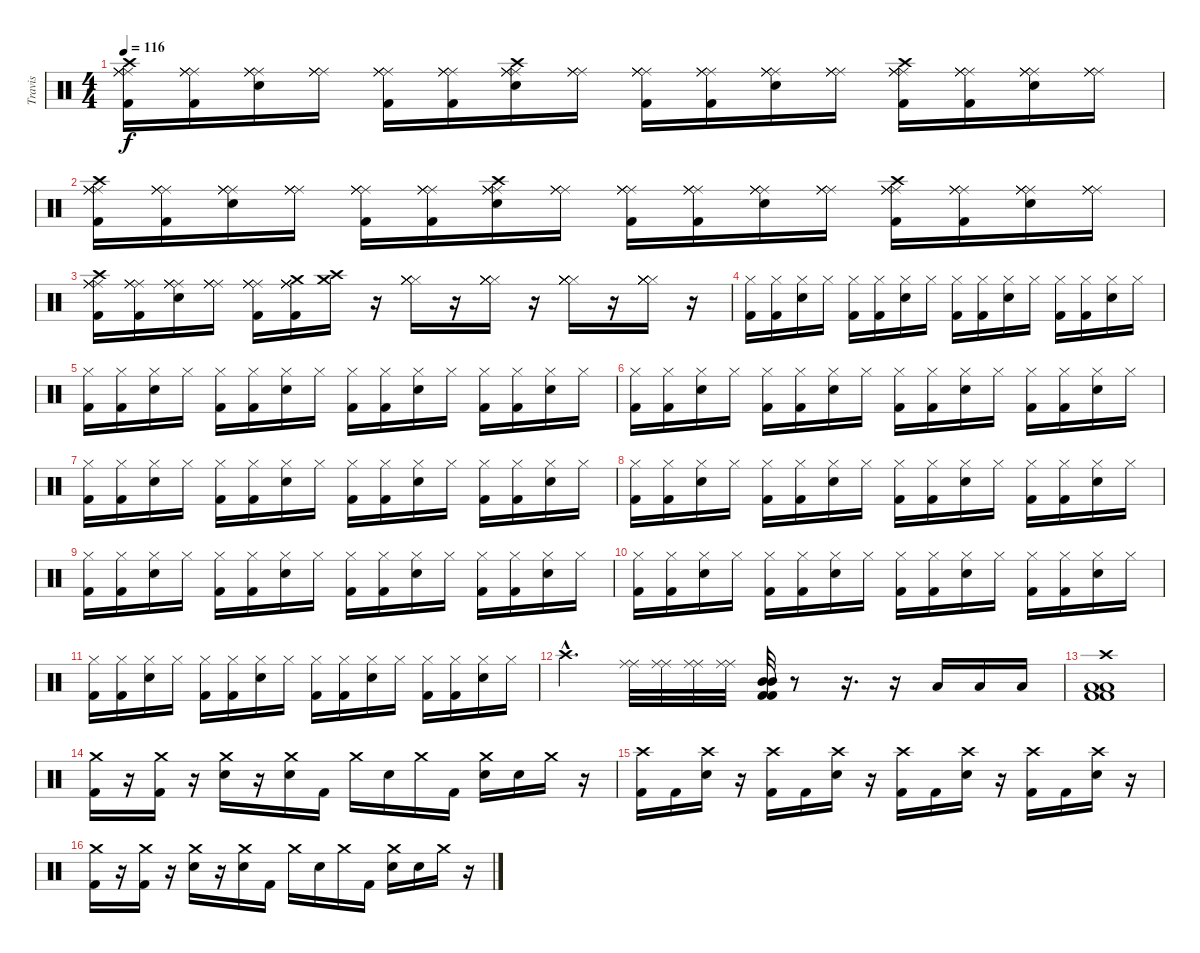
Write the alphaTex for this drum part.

\track ("Travis" "Travis") {instrument percussion}
\staff {score}
\articulation defaults
\ts (4 4)
\tempo 116
\clef neutral
\ks c
("Ride (middle)" "Crash high (hit)" "Kick (hit) 2" "Ride (middle)" "Ride (middle)" "Ride (middle)").16{dy f} ("Ride (middle)" "Kick (hit) 2" "Ride (middle)" "Ride (middle)" "Ride (middle)").16 ("Ride (middle)" "Snare (hit) 2" "Ride (middle)" "Ride (middle)" "Ride (middle)").16 ("Ride (middle)" "Ride (middle)" "Ride (middle)" "Ride (middle)").16 ("Ride (middle)" "Kick (hit) 2" "Ride (middle)" "Ride (middle)" "Ride (middle)").16 ("Ride (middle)" "Kick (hit) 2" "Ride (middle)" "Ride (middle)" "Ride (middle)").16 ("Ride (middle)" "Crash high (hit)" "Snare (hit) 2" "Ride (middle)" "Ride (middle)" "Ride (middle)").16 ("Ride (middle)" "Ride (middle)" "Ride (middle)" "Ride (middle)").16 ("Ride (middle)" "Kick (hit) 2" "Ride (middle)" "Ride (middle)" "Ride (middle)").16 ("Ride (middle)" "Kick (hit) 2" "Ride (middle)" "Ride (middle)" "Ride (middle)").16 ("Ride (middle)" "Snare (hit) 2" "Ride (middle)" "Ride (middle)" "Ride (middle)").16 ("Ride (middle)" "Ride (middle)" "Ride (middle)" "Ride (middle)").16 ("Ride (middle)" "Crash high (hit)" "Kick (hit) 2" "Ride (middle)" "Ride (middle)" "Ride (middle)").16 ("Ride (middle)" "Kick (hit) 2" "Ride (middle)" "Ride (middle)" "Ride (middle)").16 ("Ride (middle)" "Snare (hit) 2" "Ride (middle)" "Ride (middle)" "Ride (middle)").16 ("Ride (middle)" "Ride (middle)" "Ride (middle)" "Ride (middle)").16 |
("Ride (middle)" "Crash high (hit)" "Kick (hit) 2" "Ride (middle)" "Ride (middle)" "Ride (middle)").16 ("Ride (middle)" "Kick (hit) 2" "Ride (middle)" "Ride (middle)" "Ride (middle)").16 ("Ride (middle)" "Snare (hit) 2" "Ride (middle)" "Ride (middle)" "Ride (middle)").16 ("Ride (middle)" "Ride (middle)" "Ride (middle)" "Ride (middle)").16 ("Ride (middle)" "Kick (hit) 2" "Ride (middle)" "Ride (middle)" "Ride (middle)").16 ("Ride (middle)" "Kick (hit) 2" "Ride (middle)" "Ride (middle)" "Ride (middle)").16 ("Ride (middle)" "Crash high (hit)" "Snare (hit) 2" "Ride (middle)" "Ride (middle)" "Ride (middle)").16 ("Ride (middle)" "Ride (middle)" "Ride (middle)" "Ride (middle)").16 ("Ride (middle)" "Kick (hit) 2" "Ride (middle)" "Ride (middle)" "Ride (middle)").16 ("Ride (middle)" "Kick (hit) 2" "Ride (middle)" "Ride (middle)" "Ride (middle)").16 ("Ride (middle)" "Snare (hit) 2" "Ride (middle)" "Ride (middle)" "Ride (middle)").16 ("Ride (middle)" "Ride (middle)" "Ride (middle)" "Ride (middle)").16 ("Ride (middle)" "Crash high (hit)" "Kick (hit) 2" "Ride (middle)" "Ride (middle)" "Ride (middle)").16 ("Ride (middle)" "Kick (hit) 2" "Ride (middle)" "Ride (middle)" "Ride (middle)").16 ("Ride (middle)" "Snare (hit) 2" "Ride (middle)" "Ride (middle)" "Ride (middle)").16 ("Ride (middle)" "Ride (middle)" "Ride (middle)" "Ride (middle)").16 |
("Ride (middle)" "Crash high (hit)" "Kick (hit) 2" "Ride (middle)" "Ride (middle)" "Ride (middle)").16 ("Ride (middle)" "Kick (hit) 2" "Ride (middle)" "Ride (middle)" "Ride (middle)").16 ("Ride (middle)" "Snare (hit) 2" "Ride (middle)" "Ride (middle)" "Ride (middle)").16 ("Ride (middle)" "Ride (middle)" "Ride (middle)" "Ride (middle)").16 ("Ride (middle)" "Kick (hit) 2" "Ride (middle)" "Ride (middle)" "Ride (middle)").16 ("Ride (middle)" "Crash medium (hit)" "Kick (hit) 2" "Ride (middle)" "Ride (middle)" "Ride (middle)").16 ("Crash medium (hit)" "Crash high (hit)").16 r.16 ("Hi-Hat (closed)" "Hi-Hat (closed)" "Hi-Hat (closed)" "Hi-Hat (closed)" "Hi-Hat (closed)" "Hi-Hat (closed)").16 r.16 ("Hi-Hat (closed)" "Hi-Hat (closed)" "Hi-Hat (closed)" "Hi-Hat (closed)" "Hi-Hat (closed)" "Hi-Hat (closed)").16 r.16 ("Hi-Hat (closed)" "Hi-Hat (closed)" "Hi-Hat (closed)" "Hi-Hat (closed)" "Hi-Hat (closed)" "Hi-Hat (closed)").16 r.16 ("Hi-Hat (closed)" "Hi-Hat (closed)" "Hi-Hat (closed)" "Hi-Hat (closed)" "Hi-Hat (closed)" "Hi-Hat (closed)").16 r.16 |
("Hi-Hat (closed)" "Kick (hit) 2").16 ("Hi-Hat (closed)" "Kick (hit) 2").16 ("Hi-Hat (closed)" "Snare (hit) 2").16 "Hi-Hat (closed)".16 ("Hi-Hat (closed)" "Kick (hit) 2").16 ("Hi-Hat (closed)" "Kick (hit) 2").16 ("Hi-Hat (closed)" "Snare (hit) 2").16 "Hi-Hat (closed)".16 ("Hi-Hat (closed)" "Kick (hit) 2").16 ("Hi-Hat (closed)" "Kick (hit) 2").16 ("Hi-Hat (closed)" "Snare (hit) 2").16 "Hi-Hat (closed)".16 ("Hi-Hat (closed)" "Kick (hit) 2").16 ("Hi-Hat (closed)" "Kick (hit) 2").16 ("Hi-Hat (closed)" "Snare (hit) 2").16 "Hi-Hat (closed)".16 |
("Hi-Hat (closed)" "Kick (hit) 2").16 ("Hi-Hat (closed)" "Kick (hit) 2").16 ("Hi-Hat (closed)" "Snare (hit) 2").16 "Hi-Hat (closed)".16 ("Hi-Hat (closed)" "Kick (hit) 2").16 ("Hi-Hat (closed)" "Kick (hit) 2").16 ("Hi-Hat (closed)" "Snare (hit) 2").16 "Hi-Hat (closed)".16 ("Hi-Hat (closed)" "Kick (hit) 2").16 ("Hi-Hat (closed)" "Kick (hit) 2").16 ("Hi-Hat (closed)" "Snare (hit) 2").16 "Hi-Hat (closed)".16 ("Hi-Hat (closed)" "Kick (hit) 2").16 ("Hi-Hat (closed)" "Kick (hit) 2").16 ("Hi-Hat (closed)" "Snare (hit) 2").16 "Hi-Hat (closed)".16 |
("Hi-Hat (closed)" "Kick (hit) 2").16 ("Hi-Hat (closed)" "Kick (hit) 2").16 ("Hi-Hat (closed)" "Snare (hit) 2").16 "Hi-Hat (closed)".16 ("Hi-Hat (closed)" "Kick (hit) 2").16 ("Hi-Hat (closed)" "Kick (hit) 2").16 ("Hi-Hat (closed)" "Snare (hit) 2").16 "Hi-Hat (closed)".16 ("Hi-Hat (closed)" "Kick (hit) 2").16 ("Hi-Hat (closed)" "Kick (hit) 2").16 ("Hi-Hat (closed)" "Snare (hit) 2").16 "Hi-Hat (closed)".16 ("Hi-Hat (closed)" "Kick (hit) 2").16 ("Hi-Hat (closed)" "Kick (hit) 2").16 ("Hi-Hat (closed)" "Snare (hit) 2").16 "Hi-Hat (closed)".16 |
("Hi-Hat (closed)" "Kick (hit) 2").16 ("Hi-Hat (closed)" "Kick (hit) 2").16 ("Hi-Hat (closed)" "Snare (hit) 2").16 "Hi-Hat (closed)".16 ("Hi-Hat (closed)" "Kick (hit) 2").16 ("Hi-Hat (closed)" "Kick (hit) 2").16 ("Hi-Hat (closed)" "Snare (hit) 2").16 "Hi-Hat (closed)".16 ("Hi-Hat (closed)" "Kick (hit) 2").16 ("Hi-Hat (closed)" "Kick (hit) 2").16 ("Hi-Hat (closed)" "Snare (hit) 2").16 "Hi-Hat (closed)".16 ("Hi-Hat (closed)" "Kick (hit) 2").16 ("Hi-Hat (closed)" "Kick (hit) 2").16 ("Hi-Hat (closed)" "Snare (hit) 2").16 "Hi-Hat (closed)".16 |
("Hi-Hat (closed)" "Kick (hit) 2").16 ("Hi-Hat (closed)" "Kick (hit) 2").16 ("Hi-Hat (closed)" "Snare (hit) 2").16 "Hi-Hat (closed)".16 ("Hi-Hat (closed)" "Kick (hit) 2").16 ("Hi-Hat (closed)" "Kick (hit) 2").16 ("Hi-Hat (closed)" "Snare (hit) 2").16 "Hi-Hat (closed)".16 ("Hi-Hat (closed)" "Kick (hit) 2").16 ("Hi-Hat (closed)" "Kick (hit) 2").16 ("Hi-Hat (closed)" "Snare (hit) 2").16 "Hi-Hat (closed)".16 ("Hi-Hat (closed)" "Kick (hit) 2").16 ("Hi-Hat (closed)" "Kick (hit) 2").16 ("Hi-Hat (closed)" "Snare (hit) 2").16 "Hi-Hat (closed)".16 |
("Hi-Hat (closed)" "Kick (hit) 2").16 ("Hi-Hat (closed)" "Kick (hit) 2").16 ("Hi-Hat (closed)" "Snare (hit) 2").16 "Hi-Hat (closed)".16 ("Hi-Hat (closed)" "Kick (hit) 2").16 ("Hi-Hat (closed)" "Kick (hit) 2").16 ("Hi-Hat (closed)" "Snare (hit) 2").16 "Hi-Hat (closed)".16 ("Hi-Hat (closed)" "Kick (hit) 2").16 ("Hi-Hat (closed)" "Kick (hit) 2").16 ("Hi-Hat (closed)" "Snare (hit) 2").16 "Hi-Hat (closed)".16 ("Hi-Hat (closed)" "Kick (hit) 2").16 ("Hi-Hat (closed)" "Kick (hit) 2").16 ("Hi-Hat (closed)" "Snare (hit) 2").16 "Hi-Hat (closed)".16 |
("Hi-Hat (closed)" "Kick (hit) 2").16 ("Hi-Hat (closed)" "Kick (hit) 2").16 ("Hi-Hat (closed)" "Snare (hit) 2").16 "Hi-Hat (closed)".16 ("Hi-Hat (closed)" "Kick (hit) 2").16 ("Hi-Hat (closed)" "Kick (hit) 2").16 ("Hi-Hat (closed)" "Snare (hit) 2").16 "Hi-Hat (closed)".16 ("Hi-Hat (closed)" "Kick (hit) 2").16 ("Hi-Hat (closed)" "Kick (hit) 2").16 ("Hi-Hat (closed)" "Snare (hit) 2").16 "Hi-Hat (closed)".16 ("Hi-Hat (closed)" "Kick (hit) 2").16 ("Hi-Hat (closed)" "Kick (hit) 2").16 ("Hi-Hat (closed)" "Snare (hit) 2").16 "Hi-Hat (closed)".16 |
("Hi-Hat (closed)" "Kick (hit) 2").16 ("Hi-Hat (closed)" "Kick (hit) 2").16 ("Hi-Hat (closed)" "Snare (hit) 2").16 "Hi-Hat (closed)".16 ("Hi-Hat (closed)" "Kick (hit) 2").16 ("Hi-Hat (closed)" "Kick (hit) 2").16 ("Hi-Hat (closed)" "Snare (hit) 2").16 "Hi-Hat (closed)".16 ("Hi-Hat (closed)" "Kick (hit) 2").16 ("Hi-Hat (closed)" "Kick (hit) 2").16 ("Hi-Hat (closed)" "Snare (hit) 2").16 "Hi-Hat (closed)".16 ("Hi-Hat (closed)" "Kick (hit) 2").16 ("Hi-Hat (closed)" "Kick (hit) 2").16 ("Hi-Hat (closed)" "Snare (hit) 2").16 "Hi-Hat (closed)".16 |
"Crash high (hit)"{hac}.4{d} ("Ride (middle)" "Ride (middle)").32 ("Ride (middle)" "Ride (middle)").32 ("Ride (middle)" "Ride (middle)").32 ("Ride (middle)" "Ride (middle)").32 ("Mid Tom (hit)" "Mid Tom (hit)" "Kick (hit) 2" "Kick (hit) 2").32 r.8 r.16{d} r.16 "Low Floor Tom (hit)".16 "Low Floor Tom (hit)".16 "Low Floor Tom (hit)".16 |
("Kick (hit) 2" "Kick (hit) 2" "Low Floor Tom (hit)" "Low Floor Tom (hit)" "Crash high (hit)").1 |
("Crash medium (hit)" "Kick (hit) 2").16 r.16 ("Crash medium (hit)" "Kick (hit) 2").16 r.16 ("Crash medium (hit)" "Snare (hit) 2").16 r.16 ("Crash medium (hit)" "Snare (hit) 2").16 "Kick (hit) 2".16 "Crash medium (hit)".16 "Snare (hit) 2".16 "Crash medium (hit)".16 "Kick (hit) 2".16 ("Crash medium (hit)" "Snare (hit) 2").16 "Snare (hit) 2".16 "Crash medium (hit)".16 r.16 |
("Crash high (hit)" "Kick (hit) 2").16 "Kick (hit) 2".16 ("Crash high (hit)" "Snare (hit) 2").16 r.16 ("Crash high (hit)" "Kick (hit) 2").16 "Kick (hit) 2".16 ("Crash high (hit)" "Snare (hit) 2").16 r.16 ("Crash high (hit)" "Kick (hit) 2").16 "Kick (hit) 2".16 ("Crash high (hit)" "Snare (hit) 2").16 r.16 ("Crash high (hit)" "Kick (hit) 2").16 "Kick (hit) 2".16 ("Crash high (hit)" "Snare (hit) 2").16 r.16 |
("Crash medium (hit)" "Kick (hit) 2").16 r.16 ("Crash medium (hit)" "Kick (hit) 2").16 r.16 ("Crash medium (hit)" "Snare (hit) 2").16 r.16 ("Crash medium (hit)" "Snare (hit) 2").16 "Kick (hit) 2".16 "Crash medium (hit)".16 "Snare (hit) 2".16 "Crash medium (hit)".16 "Kick (hit) 2".16 ("Crash medium (hit)" "Snare (hit) 2").16 "Snare (hit) 2".16 "Crash medium (hit)".16 r.16
